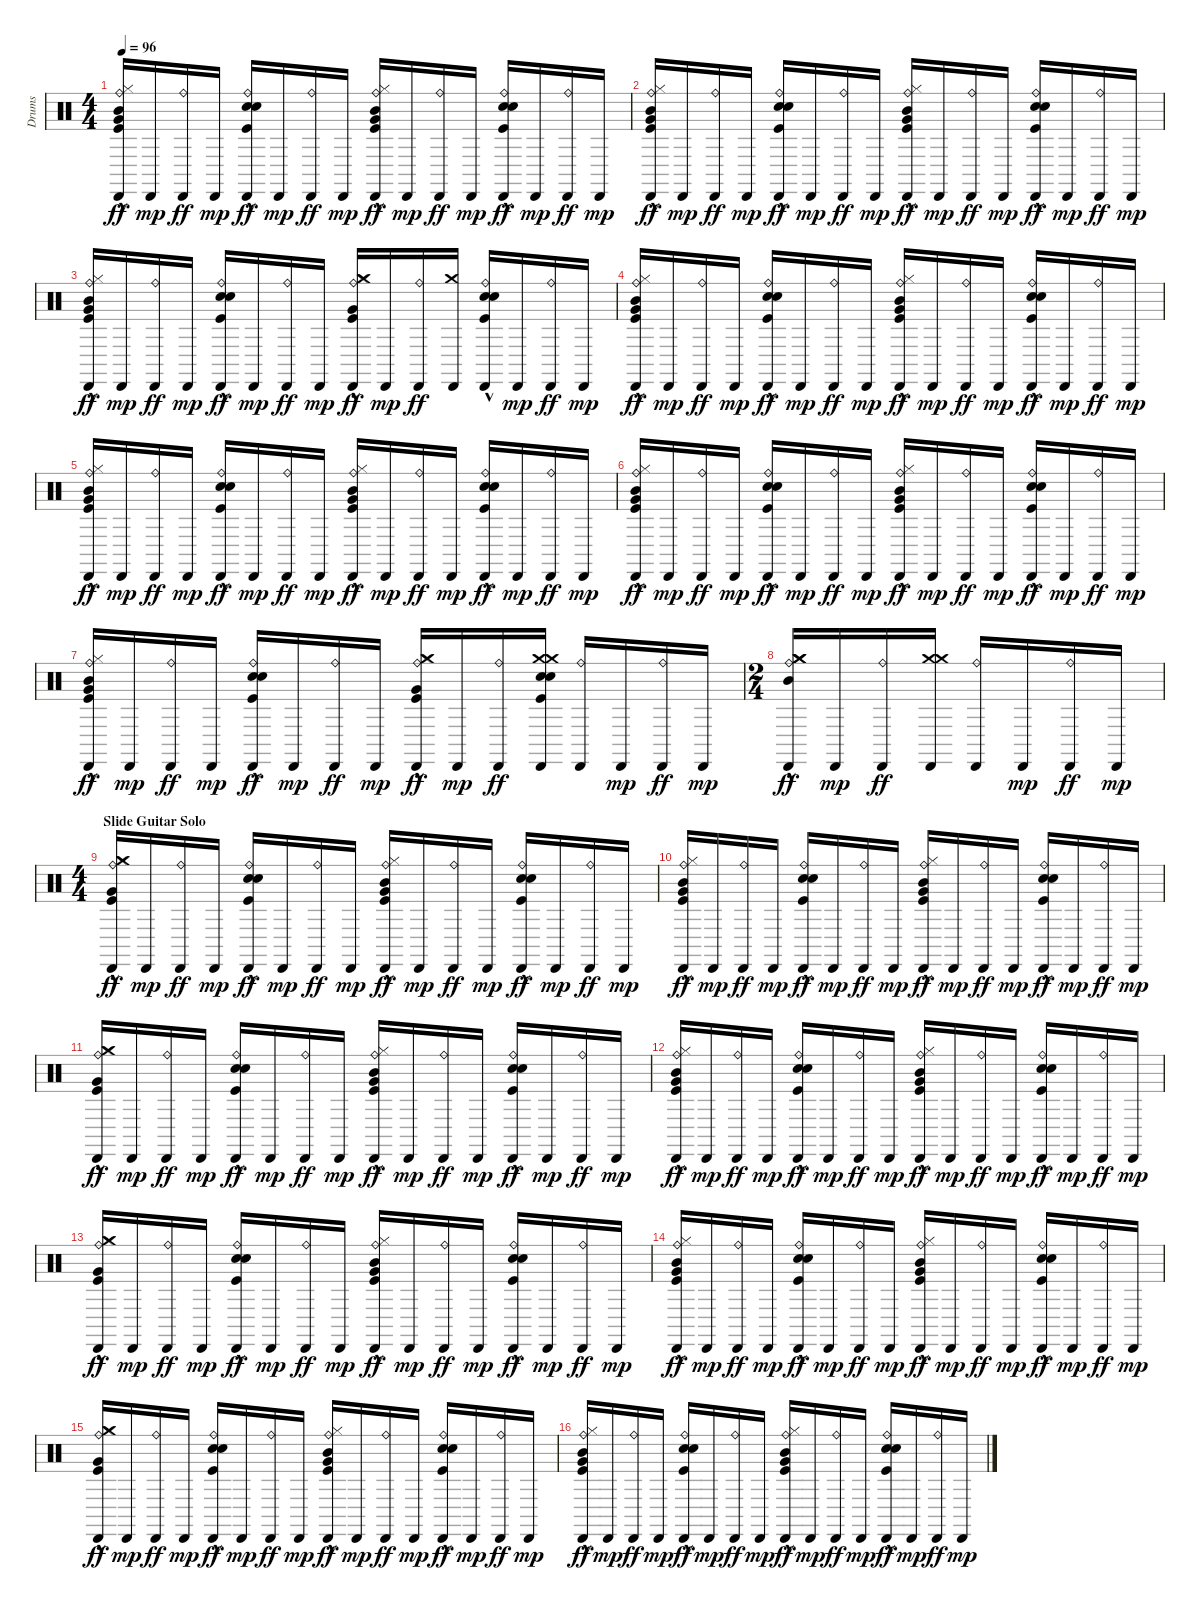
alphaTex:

\track ("Drums" "Drums") {instrument percussion}
\staff {score}
\articulation defaults
\ts (4 4)
\tempo 96
\clef neutral
\ks c
("Kick (hit)"{hac} "Hi-Hat (closed)"{hac} "Very Low Tom (hit)"{hac} "Cabasa (hit)" "Ride (bell)" "Mid Tom (hit)"{hac}).16{dy ff} "Cabasa (hit)".16{dy mp} ("Cabasa (hit)" "Ride (bell)").16{dy ff} "Cabasa (hit)".16{dy mp} ("Kick (hit)"{hac} "Snare (hit) 2"{hac} "Electric Snare (hit)"{hac} "Cabasa (hit)" "Ride (bell)").16{dy ff} "Cabasa (hit)".16{dy mp} ("Cabasa (hit)" "Ride (bell)").16{dy ff} "Cabasa (hit)".16{dy mp} ("Kick (hit)"{hac} "Hi-Hat (closed)"{hac} "Very Low Tom (hit)"{hac} "Cabasa (hit)" "Ride (bell)" "Mid Tom (hit)"{hac}).16{dy ff} "Cabasa (hit)".16{dy mp} ("Cabasa (hit)" "Ride (bell)").16{dy ff} "Cabasa (hit)".16{dy mp} ("Kick (hit)"{hac} "Snare (hit) 2"{hac} "Electric Snare (hit)"{hac} "Cabasa (hit)" "Ride (bell)").16{dy ff} "Cabasa (hit)".16{dy mp} ("Cabasa (hit)" "Ride (bell)").16{dy ff} "Cabasa (hit)".16{dy mp} |
("Kick (hit)"{hac} "Hi-Hat (closed)"{hac} "Very Low Tom (hit)"{hac} "Cabasa (hit)" "Ride (bell)" "Mid Tom (hit)"{hac}).16{dy ff} "Cabasa (hit)".16{dy mp} ("Cabasa (hit)" "Ride (bell)").16{dy ff} "Cabasa (hit)".16{dy mp} ("Kick (hit)"{hac} "Snare (hit) 2"{hac} "Electric Snare (hit)"{hac} "Cabasa (hit)" "Ride (bell)").16{dy ff} "Cabasa (hit)".16{dy mp} ("Cabasa (hit)" "Ride (bell)").16{dy ff} "Cabasa (hit)".16{dy mp} ("Kick (hit)"{hac} "Hi-Hat (closed)"{hac} "Very Low Tom (hit)"{hac} "Cabasa (hit)" "Ride (bell)" "Mid Tom (hit)"{hac}).16{dy ff} "Cabasa (hit)".16{dy mp} ("Cabasa (hit)" "Ride (bell)").16{dy ff} "Cabasa (hit)".16{dy mp} ("Kick (hit)"{hac} "Snare (hit) 2"{hac} "Electric Snare (hit)"{hac} "Cabasa (hit)" "Ride (bell)").16{dy ff} "Cabasa (hit)".16{dy mp} ("Cabasa (hit)" "Ride (bell)").16{dy ff} "Cabasa (hit)".16{dy mp} |
("Kick (hit)"{hac} "Hi-Hat (closed)"{hac} "Very Low Tom (hit)"{hac} "Cabasa (hit)" "Ride (bell)" "Mid Tom (hit)").16{dy ff} "Cabasa (hit)".16{dy mp} ("Cabasa (hit)" "Ride (bell)").16{dy ff} "Cabasa (hit)".16{dy mp} ("Kick (hit)"{hac} "Snare (hit) 2"{hac} "Electric Snare (hit)"{hac} "Cabasa (hit)" "Ride (bell)").16{dy ff} "Cabasa (hit)".16{dy mp} ("Cabasa (hit)" "Ride (bell)").16{dy ff} "Cabasa (hit)".16{dy mp} ("Kick (hit)"{hac} "Hi-Hat (closed)"{hac} "Very Low Tom (hit)"{hac} "Cabasa (hit)" "Ride (bell)" "Crash medium (hit)"{hac}).16{dy ff} "Cabasa (hit)".16{dy mp} ("Cabasa (hit)" "Ride (bell)").16{dy ff} ("Cabasa (hit)" "Crash medium (hit)").16 ("Kick (hit)"{hac} "Snare (hit) 2"{hac} "Electric Snare (hit)"{hac} "Cabasa (hit)" "Ride (bell)").16 "Cabasa (hit)".16{dy mp} ("Cabasa (hit)" "Ride (bell)").16{dy ff} "Cabasa (hit)".16{dy mp} |
("Kick (hit)"{hac} "Hi-Hat (closed)"{hac} "Very Low Tom (hit)"{hac} "Cabasa (hit)" "Ride (bell)" "Mid Tom (hit)"{hac}).16{dy ff} "Cabasa (hit)".16{dy mp} ("Cabasa (hit)" "Ride (bell)").16{dy ff} "Cabasa (hit)".16{dy mp} ("Kick (hit)"{hac} "Snare (hit) 2"{hac} "Electric Snare (hit)"{hac} "Cabasa (hit)" "Ride (bell)").16{dy ff} "Cabasa (hit)".16{dy mp} ("Cabasa (hit)" "Ride (bell)").16{dy ff} "Cabasa (hit)".16{dy mp} ("Kick (hit)"{hac} "Hi-Hat (closed)"{hac} "Very Low Tom (hit)"{hac} "Cabasa (hit)" "Ride (bell)" "Mid Tom (hit)"{hac}).16{dy ff} "Cabasa (hit)".16{dy mp} ("Cabasa (hit)" "Ride (bell)").16{dy ff} "Cabasa (hit)".16{dy mp} ("Kick (hit)"{hac} "Snare (hit) 2"{hac} "Electric Snare (hit)"{hac} "Cabasa (hit)" "Ride (bell)").16{dy ff} "Cabasa (hit)".16{dy mp} ("Cabasa (hit)" "Ride (bell)").16{dy ff} "Cabasa (hit)".16{dy mp} |
("Kick (hit)"{hac} "Hi-Hat (closed)"{hac} "Very Low Tom (hit)"{hac} "Cabasa (hit)" "Ride (bell)" "Mid Tom (hit)"{hac}).16{dy ff} "Cabasa (hit)".16{dy mp} ("Cabasa (hit)" "Ride (bell)").16{dy ff} "Cabasa (hit)".16{dy mp} ("Kick (hit)"{hac} "Snare (hit) 2"{hac} "Electric Snare (hit)"{hac} "Cabasa (hit)" "Ride (bell)").16{dy ff} "Cabasa (hit)".16{dy mp} ("Cabasa (hit)" "Ride (bell)").16{dy ff} "Cabasa (hit)".16{dy mp} ("Kick (hit)"{hac} "Hi-Hat (closed)"{hac} "Very Low Tom (hit)"{hac} "Cabasa (hit)" "Ride (bell)" "Mid Tom (hit)"{hac}).16{dy ff} "Cabasa (hit)".16{dy mp} ("Cabasa (hit)" "Ride (bell)").16{dy ff} "Cabasa (hit)".16{dy mp} ("Kick (hit)"{hac} "Snare (hit) 2"{hac} "Electric Snare (hit)"{hac} "Cabasa (hit)" "Ride (bell)").16{dy ff} "Cabasa (hit)".16{dy mp} ("Cabasa (hit)" "Ride (bell)").16{dy ff} "Cabasa (hit)".16{dy mp} |
("Kick (hit)"{hac} "Hi-Hat (closed)"{hac} "Very Low Tom (hit)"{hac} "Cabasa (hit)" "Ride (bell)" "Mid Tom (hit)"{hac}).16{dy ff} "Cabasa (hit)".16{dy mp} ("Cabasa (hit)" "Ride (bell)").16{dy ff} "Cabasa (hit)".16{dy mp} ("Kick (hit)"{hac} "Snare (hit) 2"{hac} "Electric Snare (hit)"{hac} "Cabasa (hit)" "Ride (bell)").16{dy ff} "Cabasa (hit)".16{dy mp} ("Cabasa (hit)" "Ride (bell)").16{dy ff} "Cabasa (hit)".16{dy mp} ("Kick (hit)"{hac} "Hi-Hat (closed)"{hac} "Very Low Tom (hit)"{hac} "Cabasa (hit)" "Ride (bell)" "Mid Tom (hit)"{hac}).16{dy ff} "Cabasa (hit)".16{dy mp} ("Cabasa (hit)" "Ride (bell)").16{dy ff} "Cabasa (hit)".16{dy mp} ("Kick (hit)"{hac} "Snare (hit) 2"{hac} "Electric Snare (hit)"{hac} "Cabasa (hit)" "Ride (bell)").16{dy ff} "Cabasa (hit)".16{dy mp} ("Cabasa (hit)" "Ride (bell)").16{dy ff} "Cabasa (hit)".16{dy mp} |
("Kick (hit)"{hac} "Hi-Hat (closed)"{hac} "Very Low Tom (hit)"{hac} "Cabasa (hit)" "Ride (bell)" "Mid Tom (hit)").16{dy ff} "Cabasa (hit)".16{dy mp} ("Cabasa (hit)" "Ride (bell)").16{dy ff} "Cabasa (hit)".16{dy mp} ("Kick (hit)"{hac} "Snare (hit) 2"{hac} "Electric Snare (hit)"{hac} "Cabasa (hit)" "Ride (bell)").16{dy ff} "Cabasa (hit)".16{dy mp} ("Cabasa (hit)" "Ride (bell)").16{dy ff} "Cabasa (hit)".16{dy mp} ("Crash medium (hit)"{hac} "Kick (hit)"{hac} "Hi-Hat (closed)"{hac} "Very Low Tom (hit)"{hac} "Cabasa (hit)" "Ride (bell)").16{dy ff} "Cabasa (hit)".16{dy mp} ("Cabasa (hit)" "Ride (bell)").16{dy ff} ("Crash medium (hit)" "Kick (hit)" "Snare (hit) 2" "Electric Snare (hit)" "Cabasa (hit)" "Crash medium (hit)").16 ("Cabasa (hit)" "Ride (bell)").16 "Cabasa (hit)".16{dy mp} ("Cabasa (hit)" "Ride (bell)").16{dy ff} "Cabasa (hit)".16{dy mp} |
\ts (2 4)
("Crash medium (hit)"{hac} "Cabasa (hit)" "Ride (bell)" "Crash medium (hit)"{hac} "Mid Tom (hit)").16{dy ff} "Cabasa (hit)".16{dy mp} ("Cabasa (hit)" "Ride (bell)").16{dy ff} ("Crash medium (hit)" "Cabasa (hit)" "Crash medium (hit)").16 ("Cabasa (hit)" "Ride (bell)").16 "Cabasa (hit)".16{dy mp} ("Cabasa (hit)" "Ride (bell)").16{dy ff} "Cabasa (hit)".16{dy mp} |
\ts (4 4)
\section ("" "Slide Guitar Solo")
("Crash medium (hit)"{hac} "Kick (hit)"{hac} "Hi-Hat (closed)"{hac} "Very Low Tom (hit)"{hac} "Cabasa (hit)" "Ride (bell)").16{dy ff} "Cabasa (hit)".16{dy mp} ("Cabasa (hit)" "Ride (bell)").16{dy ff} "Cabasa (hit)".16{dy mp} ("Kick (hit)"{hac} "Snare (hit) 2"{hac} "Electric Snare (hit)"{hac} "Cabasa (hit)" "Ride (bell)").16{dy ff} "Cabasa (hit)".16{dy mp} ("Cabasa (hit)" "Ride (bell)").16{dy ff} "Cabasa (hit)".16{dy mp} ("Kick (hit)"{hac} "Hi-Hat (closed)"{hac} "Very Low Tom (hit)"{hac} "Cabasa (hit)" "Ride (bell)" "Mid Tom (hit)"{hac}).16{dy ff} "Cabasa (hit)".16{dy mp} ("Cabasa (hit)" "Ride (bell)").16{dy ff} "Cabasa (hit)".16{dy mp} ("Kick (hit)"{hac} "Snare (hit) 2"{hac} "Electric Snare (hit)"{hac} "Cabasa (hit)" "Ride (bell)").16{dy ff} "Cabasa (hit)".16{dy mp} ("Cabasa (hit)" "Ride (bell)").16{dy ff} "Cabasa (hit)".16{dy mp} |
("Kick (hit)"{hac} "Hi-Hat (closed)"{hac} "Very Low Tom (hit)"{hac} "Cabasa (hit)" "Ride (bell)" "Mid Tom (hit)"{hac}).16{dy ff} "Cabasa (hit)".16{dy mp} ("Cabasa (hit)" "Ride (bell)").16{dy ff} "Cabasa (hit)".16{dy mp} ("Kick (hit)"{hac} "Snare (hit) 2"{hac} "Electric Snare (hit)"{hac} "Cabasa (hit)" "Ride (bell)").16{dy ff} "Cabasa (hit)".16{dy mp} ("Cabasa (hit)" "Ride (bell)").16{dy ff} "Cabasa (hit)".16{dy mp} ("Kick (hit)"{hac} "Hi-Hat (closed)"{hac} "Very Low Tom (hit)"{hac} "Cabasa (hit)" "Ride (bell)" "Mid Tom (hit)").16{dy ff} "Cabasa (hit)".16{dy mp} ("Cabasa (hit)" "Ride (bell)").16{dy ff} "Cabasa (hit)".16{dy mp} ("Kick (hit)"{hac} "Snare (hit) 2"{hac} "Electric Snare (hit)"{hac} "Cabasa (hit)" "Ride (bell)").16{dy ff} "Cabasa (hit)".16{dy mp} ("Cabasa (hit)" "Ride (bell)").16{dy ff} "Cabasa (hit)".16{dy mp} |
("Crash medium (hit)"{hac} "Kick (hit)"{hac} "Hi-Hat (closed)"{hac} "Very Low Tom (hit)"{hac} "Cabasa (hit)" "Ride (bell)").16{dy ff} "Cabasa (hit)".16{dy mp} ("Cabasa (hit)" "Ride (bell)").16{dy ff} "Cabasa (hit)".16{dy mp} ("Kick (hit)"{hac} "Snare (hit) 2"{hac} "Electric Snare (hit)"{hac} "Cabasa (hit)" "Ride (bell)").16{dy ff} "Cabasa (hit)".16{dy mp} ("Cabasa (hit)" "Ride (bell)").16{dy ff} "Cabasa (hit)".16{dy mp} ("Kick (hit)"{hac} "Hi-Hat (closed)"{hac} "Very Low Tom (hit)"{hac} "Cabasa (hit)" "Ride (bell)" "Mid Tom (hit)"{hac}).16{dy ff} "Cabasa (hit)".16{dy mp} ("Cabasa (hit)" "Ride (bell)").16{dy ff} "Cabasa (hit)".16{dy mp} ("Kick (hit)"{hac} "Snare (hit) 2"{hac} "Electric Snare (hit)"{hac} "Cabasa (hit)" "Ride (bell)").16{dy ff} "Cabasa (hit)".16{dy mp} ("Cabasa (hit)" "Ride (bell)").16{dy ff} "Cabasa (hit)".16{dy mp} |
("Kick (hit)"{hac} "Hi-Hat (closed)"{hac} "Very Low Tom (hit)"{hac} "Cabasa (hit)" "Ride (bell)" "Mid Tom (hit)"{hac}).16{dy ff} "Cabasa (hit)".16{dy mp} ("Cabasa (hit)" "Ride (bell)").16{dy ff} "Cabasa (hit)".16{dy mp} ("Kick (hit)"{hac} "Snare (hit) 2"{hac} "Electric Snare (hit)"{hac} "Cabasa (hit)" "Ride (bell)").16{dy ff} "Cabasa (hit)".16{dy mp} ("Cabasa (hit)" "Ride (bell)").16{dy ff} "Cabasa (hit)".16{dy mp} ("Kick (hit)"{hac} "Hi-Hat (closed)"{hac} "Very Low Tom (hit)"{hac} "Cabasa (hit)" "Ride (bell)" "Mid Tom (hit)").16{dy ff} "Cabasa (hit)".16{dy mp} ("Cabasa (hit)" "Ride (bell)").16{dy ff} "Cabasa (hit)".16{dy mp} ("Kick (hit)"{hac} "Snare (hit) 2"{hac} "Electric Snare (hit)"{hac} "Cabasa (hit)" "Ride (bell)").16{dy ff} "Cabasa (hit)".16{dy mp} ("Cabasa (hit)" "Ride (bell)").16{dy ff} "Cabasa (hit)".16{dy mp} |
("Crash medium (hit)"{hac} "Kick (hit)"{hac} "Hi-Hat (closed)"{hac} "Very Low Tom (hit)"{hac} "Cabasa (hit)" "Ride (bell)").16{dy ff} "Cabasa (hit)".16{dy mp} ("Cabasa (hit)" "Ride (bell)").16{dy ff} "Cabasa (hit)".16{dy mp} ("Kick (hit)"{hac} "Snare (hit) 2"{hac} "Electric Snare (hit)"{hac} "Cabasa (hit)" "Ride (bell)").16{dy ff} "Cabasa (hit)".16{dy mp} ("Cabasa (hit)" "Ride (bell)").16{dy ff} "Cabasa (hit)".16{dy mp} ("Kick (hit)"{hac} "Hi-Hat (closed)"{hac} "Very Low Tom (hit)"{hac} "Cabasa (hit)" "Ride (bell)" "Mid Tom (hit)"{hac}).16{dy ff} "Cabasa (hit)".16{dy mp} ("Cabasa (hit)" "Ride (bell)").16{dy ff} "Cabasa (hit)".16{dy mp} ("Kick (hit)"{hac} "Snare (hit) 2"{hac} "Electric Snare (hit)"{hac} "Cabasa (hit)" "Ride (bell)").16{dy ff} "Cabasa (hit)".16{dy mp} ("Cabasa (hit)" "Ride (bell)").16{dy ff} "Cabasa (hit)".16{dy mp} |
("Kick (hit)"{hac} "Hi-Hat (closed)"{hac} "Very Low Tom (hit)"{hac} "Cabasa (hit)" "Ride (bell)" "Mid Tom (hit)"{hac}).16{dy ff} "Cabasa (hit)".16{dy mp} ("Cabasa (hit)" "Ride (bell)").16{dy ff} "Cabasa (hit)".16{dy mp} ("Kick (hit)"{hac} "Snare (hit) 2"{hac} "Electric Snare (hit)"{hac} "Cabasa (hit)" "Ride (bell)").16{dy ff} "Cabasa (hit)".16{dy mp} ("Cabasa (hit)" "Ride (bell)").16{dy ff} "Cabasa (hit)".16{dy mp} ("Kick (hit)"{hac} "Hi-Hat (closed)"{hac} "Very Low Tom (hit)"{hac} "Cabasa (hit)" "Ride (bell)" "Mid Tom (hit)").16{dy ff} "Cabasa (hit)".16{dy mp} ("Cabasa (hit)" "Ride (bell)").16{dy ff} "Cabasa (hit)".16{dy mp} ("Kick (hit)"{hac} "Snare (hit) 2"{hac} "Electric Snare (hit)"{hac} "Cabasa (hit)" "Ride (bell)").16{dy ff} "Cabasa (hit)".16{dy mp} ("Cabasa (hit)" "Ride (bell)").16{dy ff} "Cabasa (hit)".16{dy mp} |
("Crash medium (hit)"{hac} "Kick (hit)"{hac} "Hi-Hat (closed)"{hac} "Very Low Tom (hit)"{hac} "Cabasa (hit)" "Ride (bell)").16{dy ff} "Cabasa (hit)".16{dy mp} ("Cabasa (hit)" "Ride (bell)").16{dy ff} "Cabasa (hit)".16{dy mp} ("Kick (hit)"{hac} "Snare (hit) 2"{hac} "Electric Snare (hit)"{hac} "Cabasa (hit)" "Ride (bell)").16{dy ff} "Cabasa (hit)".16{dy mp} ("Cabasa (hit)" "Ride (bell)").16{dy ff} "Cabasa (hit)".16{dy mp} ("Kick (hit)"{hac} "Hi-Hat (closed)"{hac} "Very Low Tom (hit)"{hac} "Cabasa (hit)" "Ride (bell)" "Mid Tom (hit)"{hac}).16{dy ff} "Cabasa (hit)".16{dy mp} ("Cabasa (hit)" "Ride (bell)").16{dy ff} "Cabasa (hit)".16{dy mp} ("Kick (hit)"{hac} "Snare (hit) 2"{hac} "Electric Snare (hit)"{hac} "Cabasa (hit)" "Ride (bell)").16{dy ff} "Cabasa (hit)".16{dy mp} ("Cabasa (hit)" "Ride (bell)").16{dy ff} "Cabasa (hit)".16{dy mp} |
("Kick (hit)"{hac} "Hi-Hat (closed)"{hac} "Very Low Tom (hit)"{hac} "Cabasa (hit)" "Ride (bell)" "Mid Tom (hit)"{hac}).16{dy ff} "Cabasa (hit)".16{dy mp} ("Cabasa (hit)" "Ride (bell)").16{dy ff} "Cabasa (hit)".16{dy mp} ("Kick (hit)"{hac} "Snare (hit) 2"{hac} "Electric Snare (hit)"{hac} "Cabasa (hit)" "Ride (bell)").16{dy ff} "Cabasa (hit)".16{dy mp} ("Cabasa (hit)" "Ride (bell)").16{dy ff} "Cabasa (hit)".16{dy mp} ("Kick (hit)"{hac} "Hi-Hat (closed)"{hac} "Very Low Tom (hit)"{hac} "Cabasa (hit)" "Ride (bell)" "Mid Tom (hit)").16{dy ff} "Cabasa (hit)".16{dy mp} ("Cabasa (hit)" "Ride (bell)").16{dy ff} "Cabasa (hit)".16{dy mp} ("Kick (hit)"{hac} "Snare (hit) 2"{hac} "Electric Snare (hit)"{hac} "Cabasa (hit)" "Ride (bell)").16{dy ff} "Cabasa (hit)".16{dy mp} ("Cabasa (hit)" "Ride (bell)").16{dy ff} "Cabasa (hit)".16{dy mp}
